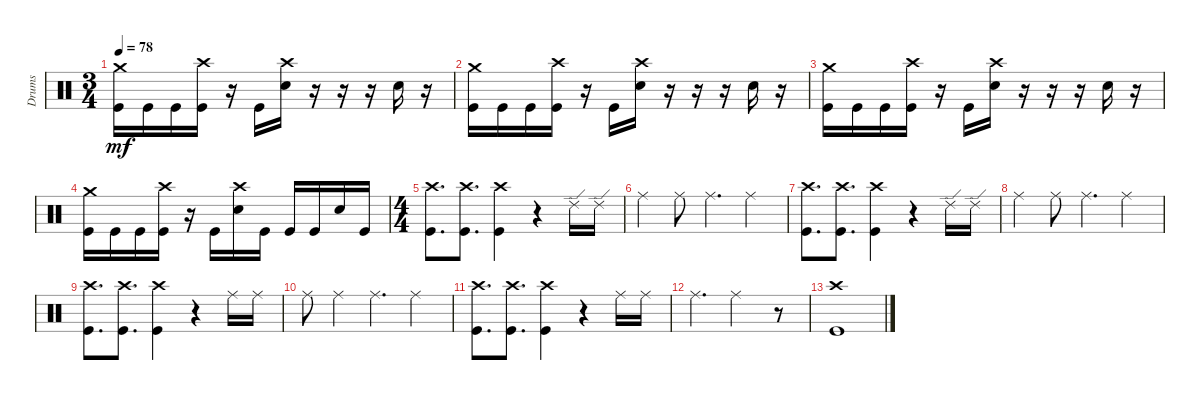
\track ("Drums" "Drums") {instrument percussion}
\staff {score}
\articulation defaults
\ts (3 4)
\tempo 78
\clef neutral
\ks c
("Kick (hit)" "Crash medium (hit)").16{dy mf} "Kick (hit)".16 "Kick (hit)".16 ("Kick (hit)" "Crash high (hit)").16 r.16 "Kick (hit)".16 ("Snare (hit) 2" "Crash high (hit)").16 r.16 r.16 r.16 "Snare (hit) 2".16 r.16 |
("Kick (hit)" "Crash medium (hit)").16 "Kick (hit)".16 "Kick (hit)".16 ("Kick (hit)" "Crash high (hit)").16 r.16 "Kick (hit)".16 ("Snare (hit) 2" "Crash high (hit)").16 r.16 r.16 r.16 "Snare (hit) 2".16 r.16 |
("Kick (hit)" "Crash medium (hit)").16 "Kick (hit)".16 "Kick (hit)".16 ("Kick (hit)" "Crash high (hit)").16 r.16 "Kick (hit)".16 ("Snare (hit) 2" "Crash high (hit)").16 r.16 r.16 r.16 "Snare (hit) 2".16 r.16 |
("Kick (hit)" "Crash medium (hit)").16 "Kick (hit)".16 "Kick (hit)".16 ("Kick (hit)" "Crash high (hit)").16 r.16 "Kick (hit)".16 ("Snare (hit) 2" "Crash high (hit)").16 "Kick (hit)".16 "Kick (hit)".16 "Kick (hit)".16 "Snare (hit) 2".16 "Kick (hit)".16 |
\ts (4 4)
("Kick (hit)" "Crash high (hit)").8{d} ("Kick (hit)" "Crash high (hit)").8{d} ("Kick (hit)" "Crash high (hit)").4 r.4 "Ride (edge) 2".16 "Ride (edge) 2".16 |
"Ride (middle)".4 "Ride (middle)".8 "Ride (middle)".4{d} "Ride (middle)".4 |
("Kick (hit)" "Crash high (hit)").8{d} ("Kick (hit)" "Crash high (hit)").8{d} ("Kick (hit)" "Crash high (hit)").4 r.4 "Ride (edge) 2".16 "Ride (edge) 2".16 |
"Ride (middle)".4 "Ride (middle)".8 "Ride (middle)".4{d} "Ride (middle)".4 |
("Kick (hit)" "Crash high (hit)").8{d} ("Kick (hit)" "Crash high (hit)").8{d} ("Kick (hit)" "Crash high (hit)").4 r.4 "Ride (middle)".16 "Ride (middle)".16 |
"Ride (middle)".8 "Ride (middle)".4 "Ride (middle)".4{d} "Ride (middle)".4 |
("Kick (hit)" "Crash high (hit)").8{d} ("Kick (hit)" "Crash high (hit)").8{d} ("Kick (hit)" "Crash high (hit)").4 r.4 "Ride (middle)".16 "Ride (middle)".16 |
"Ride (middle)".4{d} "Ride (middle)".2 r.8 |
("Kick (hit)" "Crash high (hit)").1
